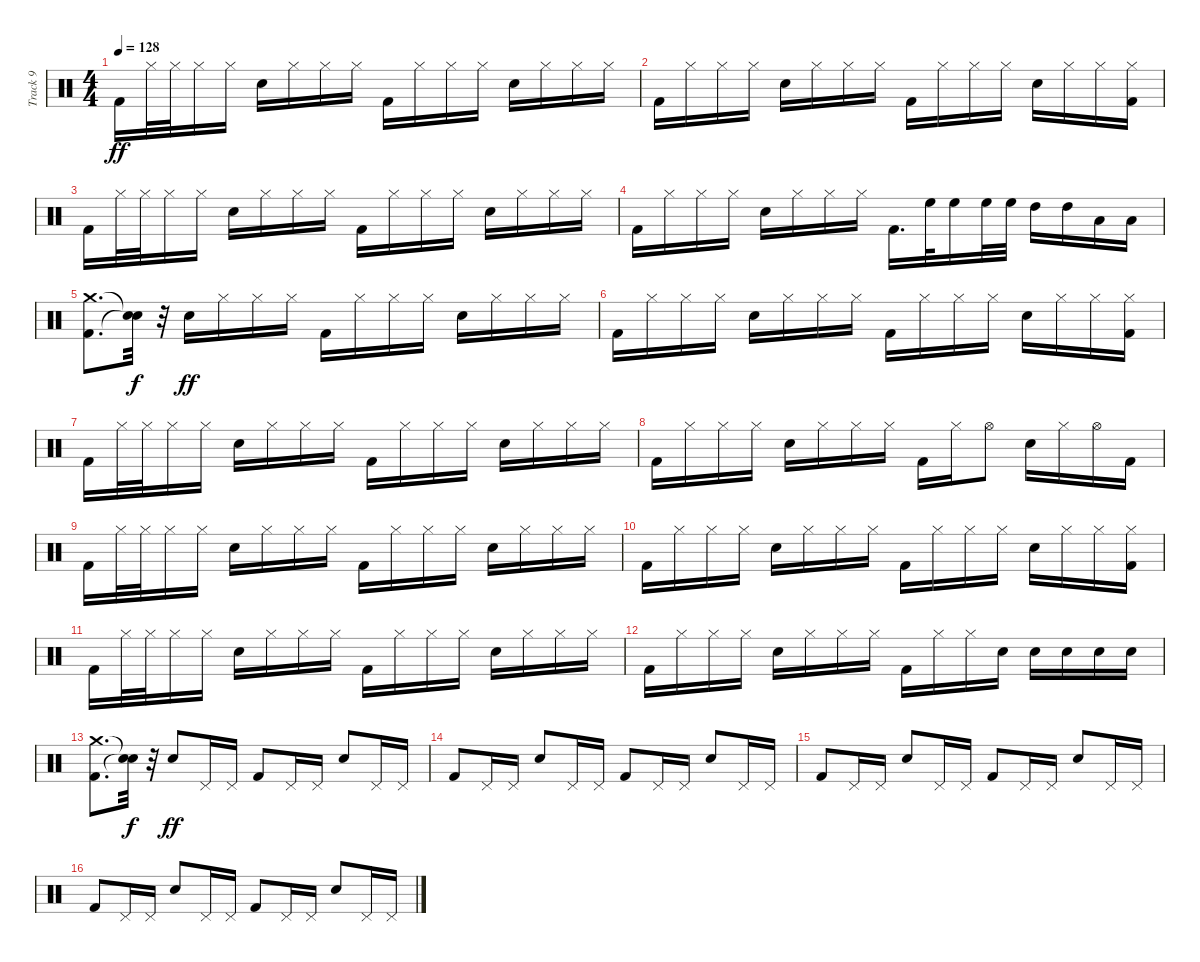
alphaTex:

\track ("Track 9" "Track 9") {instrument percussion}
\staff {score}
\articulation defaults
\ts (4 4)
\tempo 128
\clef neutral
\ks c "Kick (hit) 2".16{dy ff} "Hi-Hat (closed)".32 "Hi-Hat (closed)".32 "Hi-Hat (closed)".16 "Hi-Hat (closed)".16 "Snare (hit) 2".16 "Hi-Hat (closed)".16 "Hi-Hat (closed)".16 "Hi-Hat (closed)".16 "Kick (hit) 2".16 "Hi-Hat (closed)".16 "Hi-Hat (closed)".16 "Hi-Hat (closed)".16 "Snare (hit) 2".16 "Hi-Hat (closed)".16 "Hi-Hat (closed)".16 "Hi-Hat (closed)".16
|
"Kick (hit) 2".16 "Hi-Hat (closed)".16 "Hi-Hat (closed)".16 "Hi-Hat (closed)".16 "Snare (hit) 2".16 "Hi-Hat (closed)".16 "Hi-Hat (closed)".16 "Hi-Hat (closed)".16 "Kick (hit) 2".16 "Hi-Hat (closed)".16 "Hi-Hat (closed)".16 "Hi-Hat (closed)".16 "Snare (hit) 2".16 "Hi-Hat (closed)".16 "Hi-Hat (closed)".16 ("Kick (hit) 2" "Hi-Hat (closed)").16 |
"Kick (hit) 2".16 "Hi-Hat (closed)".32 "Hi-Hat (closed)".32 "Hi-Hat (closed)".16 "Hi-Hat (closed)".16 "Snare (hit) 2".16 "Hi-Hat (closed)".16 "Hi-Hat (closed)".16 "Hi-Hat (closed)".16 "Kick (hit) 2".16 "Hi-Hat (closed)".16 "Hi-Hat (closed)".16 "Hi-Hat (closed)".16 "Snare (hit) 2".16 "Hi-Hat (closed)".16 "Hi-Hat (closed)".16 "Hi-Hat (closed)".16 |
"Kick (hit) 2".16 "Hi-Hat (closed)".16 "Hi-Hat (closed)".16 "Hi-Hat (closed)".16 "Snare (hit) 2".16 "Hi-Hat (closed)".16 "Hi-Hat (closed)".16 "Hi-Hat (closed)".16 "Kick (hit) 2".16{d} "High Floor Tom (hit)".32 "High Floor Tom (hit)".16 "High Floor Tom (hit)".32 "High Floor Tom (hit)".32 "High Tom (hit)".16 "High Tom (hit)".16 "Low Tom (hit)".16 "Low Floor Tom (hit)".16 |
("Kick (hit) 2" "Crash medium (hit)").8{d} ("Snare (hit)"{t} "Snare (hit)"{t}).32{dy f} r.32 "Snare (hit) 2".16{dy ff} "Hi-Hat (closed)".16 "Hi-Hat (closed)".16 "Hi-Hat (closed)".16 "Kick (hit) 2".16 "Hi-Hat (closed)".16 "Hi-Hat (closed)".16 "Hi-Hat (closed)".16 "Snare (hit) 2".16 "Hi-Hat (closed)".16 "Hi-Hat (closed)".16 "Hi-Hat (closed)".16 |
"Kick (hit) 2".16 "Hi-Hat (closed)".16 "Hi-Hat (closed)".16 "Hi-Hat (closed)".16 "Snare (hit) 2".16 "Hi-Hat (closed)".16 "Hi-Hat (closed)".16 "Hi-Hat (closed)".16 "Kick (hit) 2".16 "Hi-Hat (closed)".16 "Hi-Hat (closed)".16 "Hi-Hat (closed)".16 "Snare (hit) 2".16 "Hi-Hat (closed)".16 "Hi-Hat (closed)".16 ("Kick (hit) 2" "Hi-Hat (closed)").16 |
"Kick (hit) 2".16 "Hi-Hat (closed)".32 "Hi-Hat (closed)".32 "Hi-Hat (closed)".16 "Hi-Hat (closed)".16 "Snare (hit) 2".16 "Hi-Hat (closed)".16 "Hi-Hat (closed)".16 "Hi-Hat (closed)".16 "Kick (hit) 2".16 "Hi-Hat (closed)".16 "Hi-Hat (closed)".16 "Hi-Hat (closed)".16 "Snare (hit) 2".16 "Hi-Hat (closed)".16 "Hi-Hat (closed)".16 "Hi-Hat (closed)".16 |
"Kick (hit) 2".16 "Hi-Hat (closed)".16 "Hi-Hat (closed)".16 "Hi-Hat (closed)".16 "Snare (hit) 2".16 "Hi-Hat (closed)".16 "Hi-Hat (closed)".16 "Hi-Hat (closed)".16 "Kick (hit) 2".16 "Hi-Hat (closed)".16 "Hi-Hat (open)".8 "Snare (hit) 2".16 "Hi-Hat (closed)".16 "Hi-Hat (open)".16 "Kick (hit) 2".16 |
"Kick (hit) 2".16 "Hi-Hat (closed)".32 "Hi-Hat (closed)".32 "Hi-Hat (closed)".16 "Hi-Hat (closed)".16 "Snare (hit) 2".16 "Hi-Hat (closed)".16 "Hi-Hat (closed)".16 "Hi-Hat (closed)".16 "Kick (hit) 2".16 "Hi-Hat (closed)".16 "Hi-Hat (closed)".16 "Hi-Hat (closed)".16 "Snare (hit) 2".16 "Hi-Hat (closed)".16 "Hi-Hat (closed)".16 "Hi-Hat (closed)".16 |
"Kick (hit) 2".16 "Hi-Hat (closed)".16 "Hi-Hat (closed)".16 "Hi-Hat (closed)".16 "Snare (hit) 2".16 "Hi-Hat (closed)".16 "Hi-Hat (closed)".16 "Hi-Hat (closed)".16 "Kick (hit) 2".16 "Hi-Hat (closed)".16 "Hi-Hat (closed)".16 "Hi-Hat (closed)".16 "Snare (hit) 2".16 "Hi-Hat (closed)".16 "Hi-Hat (closed)".16 ("Kick (hit) 2" "Hi-Hat (closed)").16 |
"Kick (hit) 2".16 "Hi-Hat (closed)".32 "Hi-Hat (closed)".32 "Hi-Hat (closed)".16 "Hi-Hat (closed)".16 "Snare (hit) 2".16 "Hi-Hat (closed)".16 "Hi-Hat (closed)".16 "Hi-Hat (closed)".16 "Kick (hit) 2".16 "Hi-Hat (closed)".16 "Hi-Hat (closed)".16 "Hi-Hat (closed)".16 "Snare (hit) 2".16 "Hi-Hat (closed)".16 "Hi-Hat (closed)".16 "Hi-Hat (closed)".16 |
"Kick (hit) 2".16 "Hi-Hat (closed)".16 "Hi-Hat (closed)".16 "Hi-Hat (closed)".16 "Snare (hit) 2".16 "Hi-Hat (closed)".16 "Hi-Hat (closed)".16 "Hi-Hat (closed)".16 "Kick (hit) 2".16 "Hi-Hat (closed)".16 "Hi-Hat (closed)".16 "Snare (hit) 2".16 "Snare (hit) 2".16 "Snare (hit) 2".16 "Snare (hit) 2".16 "Snare (hit) 2".16 |
("Kick (hit) 2" "Crash medium (hit)").8{d} ("Snare (hit)"{t} "Snare (hit)"{t}).32{dy f} r.32 "Snare (hit) 2".8{dy ff} "Pedal Hi-Hat (hit)".16 "Pedal Hi-Hat (hit)".16 "Kick (hit) 2".8 "Pedal Hi-Hat (hit)".16 "Pedal Hi-Hat (hit)".16 "Snare (hit) 2".8 "Pedal Hi-Hat (hit)".16 "Pedal Hi-Hat (hit)".16 |
"Kick (hit) 2".8 "Pedal Hi-Hat (hit)".16 "Pedal Hi-Hat (hit)".16 "Snare (hit) 2".8 "Pedal Hi-Hat (hit)".16 "Pedal Hi-Hat (hit)".16 "Kick (hit) 2".8 "Pedal Hi-Hat (hit)".16 "Pedal Hi-Hat (hit)".16 "Snare (hit) 2".8 "Pedal Hi-Hat (hit)".16 "Pedal Hi-Hat (hit)".16 |
"Kick (hit) 2".8 "Pedal Hi-Hat (hit)".16 "Pedal Hi-Hat (hit)".16 "Snare (hit) 2".8 "Pedal Hi-Hat (hit)".16 "Pedal Hi-Hat (hit)".16 "Kick (hit) 2".8 "Pedal Hi-Hat (hit)".16 "Pedal Hi-Hat (hit)".16 "Snare (hit) 2".8 "Pedal Hi-Hat (hit)".16 "Pedal Hi-Hat (hit)".16 |
"Kick (hit) 2".8 "Pedal Hi-Hat (hit)".16 "Pedal Hi-Hat (hit)".16 "Snare (hit) 2".8 "Pedal Hi-Hat (hit)".16 "Pedal Hi-Hat (hit)".16 "Kick (hit) 2".8 "Pedal Hi-Hat (hit)".16 "Pedal Hi-Hat (hit)".16 "Snare (hit) 2".8 "Pedal Hi-Hat (hit)".16 "Pedal Hi-Hat (hit)".16
